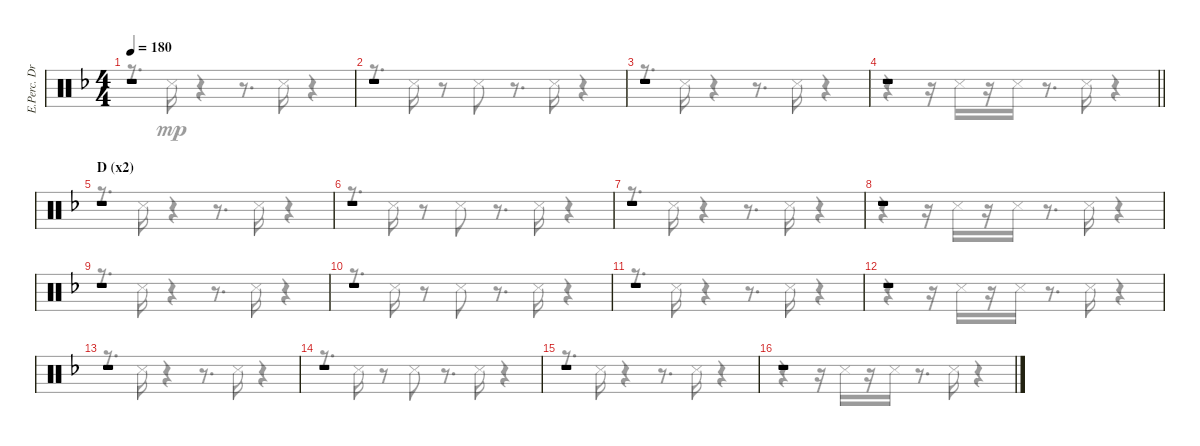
\track ("E.Perc. Drums" "E.Perc. Dr") {instrument percussion}
\staff {score}
\articulation defaults
\voice
\ts (4 4)
\tempo 180
\clef neutral
\ks f
r.1{dy mp} |
r.1 |
r.1 |
\barLineRight lightlight
r.1 |
\section ("" "D (x2)")
r.1 |
r.1 |
r.1 |
r.1 |
r.1 |
r.1 |
r.1 |
r.1 |
r.1 |
r.1 |
r.1 |
r.1
\voice
\clef neutral
\ottava regular
\simile none
\ks f
r.8{d dy mp} "Snare (side stick) 3".16 r.4 r.8{d} "Snare (side stick) 3".16 r.4 |
r.8{d} "Snare (side stick) 3".16 r.8 "Snare (side stick) 3".8 r.8{d} "Snare (side stick) 3".16 r.4 |
r.8{d} "Snare (side stick) 3".16 r.4 r.8{d} "Snare (side stick) 3".16 r.4 |
\barLineRight lightlight
r.4 r.16 "Snare (side stick) 3".16 r.16 "Snare (side stick) 3".16 r.8{d} "Snare (side stick) 3".16 r.4 |
r.8{d} "Snare (side stick) 3".16 r.4 r.8{d} "Snare (side stick) 3".16 r.4 |
r.8{d} "Snare (side stick) 3".16 r.8 "Snare (side stick) 3".8 r.8{d} "Snare (side stick) 3".16 r.4 |
r.8{d} "Snare (side stick) 3".16 r.4 r.8{d} "Snare (side stick) 3".16 r.4 |
r.4 r.16 "Snare (side stick) 3".16 r.16 "Snare (side stick) 3".16 r.8{d} "Snare (side stick) 3".16 r.4 |
r.8{d} "Snare (side stick) 3".16 r.4 r.8{d} "Snare (side stick) 3".16 r.4 |
r.8{d} "Snare (side stick) 3".16 r.8 "Snare (side stick) 3".8 r.8{d} "Snare (side stick) 3".16 r.4 |
r.8{d} "Snare (side stick) 3".16 r.4 r.8{d} "Snare (side stick) 3".16 r.4 |
r.4 r.16 "Snare (side stick) 3".16 r.16 "Snare (side stick) 3".16 r.8{d} "Snare (side stick) 3".16 r.4 |
r.8{d} "Snare (side stick) 3".16 r.4 r.8{d} "Snare (side stick) 3".16 r.4 |
r.8{d} "Snare (side stick) 3".16 r.8 "Snare (side stick) 3".8 r.8{d} "Snare (side stick) 3".16 r.4 |
r.8{d} "Snare (side stick) 3".16 r.4 r.8{d} "Snare (side stick) 3".16 r.4 |
r.4 r.16 "Snare (side stick) 3".16 r.16 "Snare (side stick) 3".16 r.8{d} "Snare (side stick) 3".16 r.4
